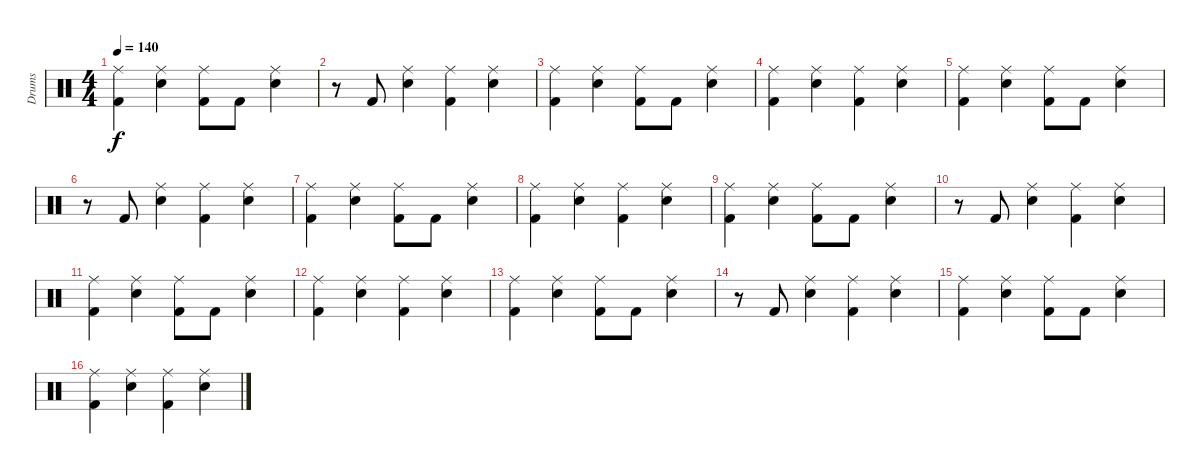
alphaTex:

\track ("Drums" "Drums") {instrument percussion}
\staff {score}
\articulation defaults
\ts (4 4)
\tempo 140
\clef neutral
\ks c
("Ride (middle)" "Kick (hit) 2").4{dy f} ("Ride (middle)" "Electric Snare (hit)").4 ("Ride (middle)" "Kick (hit) 2").8 "Kick (hit) 2".8 ("Ride (middle)" "Electric Snare (hit)").4 |
r.8 "Kick (hit) 2".8 ("Ride (middle)" "Electric Snare (hit)").4 ("Ride (middle)" "Kick (hit) 2").4 ("Ride (middle)" "Electric Snare (hit)").4 |
("Ride (middle)" "Kick (hit) 2").4 ("Ride (middle)" "Electric Snare (hit)").4 ("Ride (middle)" "Kick (hit) 2").8 "Kick (hit) 2".8 ("Ride (middle)" "Electric Snare (hit)").4 |
("Ride (middle)" "Kick (hit) 2").4 ("Ride (middle)" "Electric Snare (hit)").4 ("Ride (middle)" "Kick (hit) 2").4 ("Ride (middle)" "Electric Snare (hit)").4 |
("Ride (middle)" "Kick (hit) 2").4 ("Ride (middle)" "Electric Snare (hit)").4 ("Ride (middle)" "Kick (hit) 2").8 "Kick (hit) 2".8 ("Ride (middle)" "Electric Snare (hit)").4 |
r.8 "Kick (hit) 2".8 ("Ride (middle)" "Electric Snare (hit)").4 ("Ride (middle)" "Kick (hit) 2").4 ("Ride (middle)" "Electric Snare (hit)").4 |
("Ride (middle)" "Kick (hit) 2").4 ("Ride (middle)" "Electric Snare (hit)").4 ("Ride (middle)" "Kick (hit) 2").8 "Kick (hit) 2".8 ("Ride (middle)" "Electric Snare (hit)").4 |
("Ride (middle)" "Kick (hit) 2").4 ("Ride (middle)" "Electric Snare (hit)").4 ("Ride (middle)" "Kick (hit) 2").4 ("Ride (middle)" "Electric Snare (hit)").4 |
("Ride (middle)" "Kick (hit) 2").4 ("Ride (middle)" "Electric Snare (hit)").4 ("Ride (middle)" "Kick (hit) 2").8 "Kick (hit) 2".8 ("Ride (middle)" "Electric Snare (hit)").4 |
r.8 "Kick (hit) 2".8 ("Ride (middle)" "Electric Snare (hit)").4 ("Ride (middle)" "Kick (hit) 2").4 ("Ride (middle)" "Electric Snare (hit)").4 |
("Ride (middle)" "Kick (hit) 2").4 ("Ride (middle)" "Electric Snare (hit)").4 ("Ride (middle)" "Kick (hit) 2").8 "Kick (hit) 2".8 ("Ride (middle)" "Electric Snare (hit)").4 |
("Ride (middle)" "Kick (hit) 2").4 ("Ride (middle)" "Electric Snare (hit)").4 ("Ride (middle)" "Kick (hit) 2").4 ("Ride (middle)" "Electric Snare (hit)").4 |
("Ride (middle)" "Kick (hit) 2").4 ("Ride (middle)" "Electric Snare (hit)").4 ("Ride (middle)" "Kick (hit) 2").8 "Kick (hit) 2".8 ("Ride (middle)" "Electric Snare (hit)").4 |
r.8 "Kick (hit) 2".8 ("Ride (middle)" "Electric Snare (hit)").4 ("Ride (middle)" "Kick (hit) 2").4 ("Ride (middle)" "Electric Snare (hit)").4 |
("Ride (middle)" "Kick (hit) 2").4 ("Ride (middle)" "Electric Snare (hit)").4 ("Ride (middle)" "Kick (hit) 2").8 "Kick (hit) 2".8 ("Ride (middle)" "Electric Snare (hit)").4 |
("Ride (middle)" "Kick (hit) 2").4 ("Ride (middle)" "Electric Snare (hit)").4 ("Ride (middle)" "Kick (hit) 2").4 ("Ride (middle)" "Electric Snare (hit)").4
